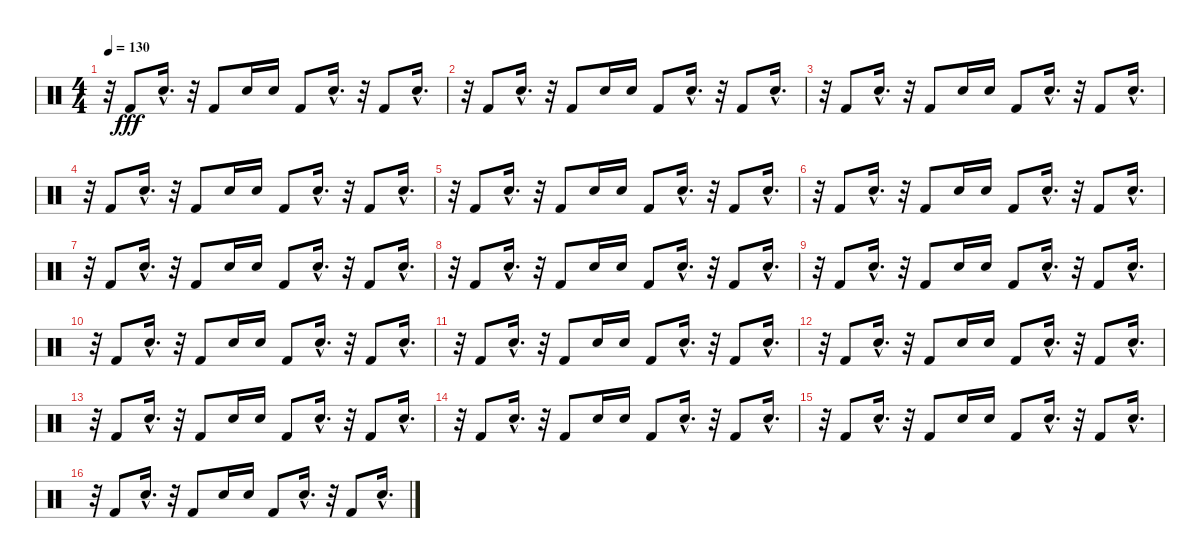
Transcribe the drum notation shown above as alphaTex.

\track "" {instrument percussion}
\staff {score}
\articulation defaults
\ts (4 4)
\tempo 130
\clef neutral
\ks c
r.32{dy fff} "Kick (hit) 2".8 "Electric Snare (hit)"{hac}.16{d} r.32 "Kick (hit) 2".8 "Electric Snare (hit)".16 "Electric Snare (hit)".16 "Kick (hit) 2".8 "Electric Snare (hit)"{hac}.16{d} r.32 "Kick (hit) 2".8 "Electric Snare (hit)"{hac}.16{d} |
r.32 "Kick (hit) 2".8 "Electric Snare (hit)"{hac}.16{d} r.32 "Kick (hit) 2".8 "Electric Snare (hit)".16 "Electric Snare (hit)".16 "Kick (hit) 2".8 "Electric Snare (hit)"{hac}.16{d} r.32 "Kick (hit) 2".8 "Electric Snare (hit)"{hac}.16{d} |
r.32 "Kick (hit) 2".8 "Electric Snare (hit)"{hac}.16{d} r.32 "Kick (hit) 2".8 "Electric Snare (hit)".16 "Electric Snare (hit)".16 "Kick (hit) 2".8 "Electric Snare (hit)"{hac}.16{d} r.32 "Kick (hit) 2".8 "Electric Snare (hit)"{hac}.16{d} |
r.32 "Kick (hit) 2".8 "Electric Snare (hit)"{hac}.16{d} r.32 "Kick (hit) 2".8 "Electric Snare (hit)".16 "Electric Snare (hit)".16 "Kick (hit) 2".8 "Electric Snare (hit)"{hac}.16{d} r.32 "Kick (hit) 2".8 "Electric Snare (hit)"{hac}.16{d} |
r.32 "Kick (hit) 2".8 "Electric Snare (hit)"{hac}.16{d} r.32 "Kick (hit) 2".8 "Electric Snare (hit)".16 "Electric Snare (hit)".16 "Kick (hit) 2".8 "Electric Snare (hit)"{hac}.16{d} r.32 "Kick (hit) 2".8 "Electric Snare (hit)"{hac}.16{d} |
r.32 "Kick (hit) 2".8 "Electric Snare (hit)"{hac}.16{d} r.32 "Kick (hit) 2".8 "Electric Snare (hit)".16 "Electric Snare (hit)".16 "Kick (hit) 2".8 "Electric Snare (hit)"{hac}.16{d} r.32 "Kick (hit) 2".8 "Electric Snare (hit)"{hac}.16{d} |
r.32 "Kick (hit) 2".8 "Electric Snare (hit)"{hac}.16{d} r.32 "Kick (hit) 2".8 "Electric Snare (hit)".16 "Electric Snare (hit)".16 "Kick (hit) 2".8 "Electric Snare (hit)"{hac}.16{d} r.32 "Kick (hit) 2".8 "Electric Snare (hit)"{hac}.16{d} |
r.32 "Kick (hit) 2".8 "Electric Snare (hit)"{hac}.16{d} r.32 "Kick (hit) 2".8 "Electric Snare (hit)".16 "Electric Snare (hit)".16 "Kick (hit) 2".8 "Electric Snare (hit)"{hac}.16{d} r.32 "Kick (hit) 2".8 "Electric Snare (hit)"{hac}.16{d} |
r.32 "Kick (hit) 2".8 "Electric Snare (hit)"{hac}.16{d} r.32 "Kick (hit) 2".8 "Electric Snare (hit)".16 "Electric Snare (hit)".16 "Kick (hit) 2".8 "Electric Snare (hit)"{hac}.16{d} r.32 "Kick (hit) 2".8 "Electric Snare (hit)"{hac}.16{d} |
r.32 "Kick (hit) 2".8 "Electric Snare (hit)"{hac}.16{d} r.32 "Kick (hit) 2".8 "Electric Snare (hit)".16 "Electric Snare (hit)".16 "Kick (hit) 2".8 "Electric Snare (hit)"{hac}.16{d} r.32 "Kick (hit) 2".8 "Electric Snare (hit)"{hac}.16{d} |
r.32 "Kick (hit) 2".8 "Electric Snare (hit)"{hac}.16{d} r.32 "Kick (hit) 2".8 "Electric Snare (hit)".16 "Electric Snare (hit)".16 "Kick (hit) 2".8 "Electric Snare (hit)"{hac}.16{d} r.32 "Kick (hit) 2".8 "Electric Snare (hit)"{hac}.16{d} |
r.32 "Kick (hit) 2".8 "Electric Snare (hit)"{hac}.16{d} r.32 "Kick (hit) 2".8 "Electric Snare (hit)".16 "Electric Snare (hit)".16 "Kick (hit) 2".8 "Electric Snare (hit)"{hac}.16{d} r.32 "Kick (hit) 2".8 "Electric Snare (hit)"{hac}.16{d} |
r.32 "Kick (hit) 2".8 "Electric Snare (hit)"{hac}.16{d} r.32 "Kick (hit) 2".8 "Electric Snare (hit)".16 "Electric Snare (hit)".16 "Kick (hit) 2".8 "Electric Snare (hit)"{hac}.16{d} r.32 "Kick (hit) 2".8 "Electric Snare (hit)"{hac}.16{d} |
r.32 "Kick (hit) 2".8 "Electric Snare (hit)"{hac}.16{d} r.32 "Kick (hit) 2".8 "Electric Snare (hit)".16 "Electric Snare (hit)".16 "Kick (hit) 2".8 "Electric Snare (hit)"{hac}.16{d} r.32 "Kick (hit) 2".8 "Electric Snare (hit)"{hac}.16{d} |
r.32 "Kick (hit) 2".8 "Electric Snare (hit)"{hac}.16{d} r.32 "Kick (hit) 2".8 "Electric Snare (hit)".16 "Electric Snare (hit)".16 "Kick (hit) 2".8 "Electric Snare (hit)"{hac}.16{d} r.32 "Kick (hit) 2".8 "Electric Snare (hit)"{hac}.16{d} |
r.32 "Kick (hit) 2".8 "Electric Snare (hit)"{hac}.16{d} r.32 "Kick (hit) 2".8 "Electric Snare (hit)".16 "Electric Snare (hit)".16 "Kick (hit) 2".8 "Electric Snare (hit)"{hac}.16{d} r.32 "Kick (hit) 2".8 "Electric Snare (hit)"{hac}.16{d}
